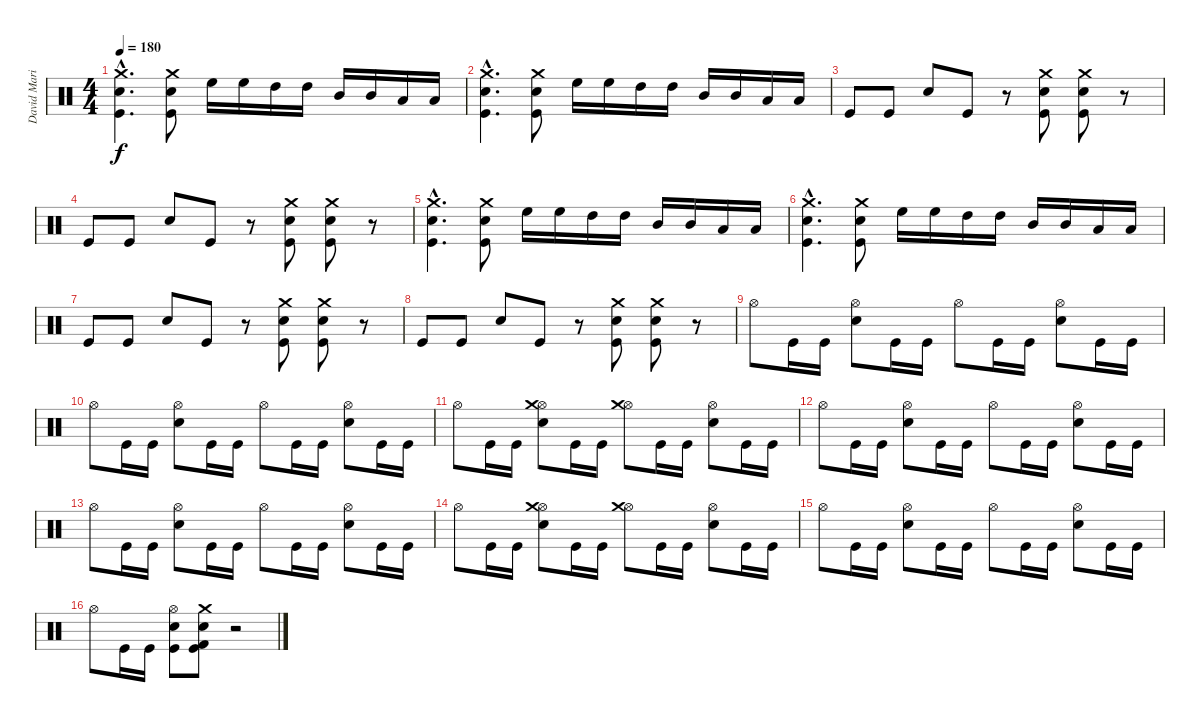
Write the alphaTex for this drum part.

\track ("David Marinero" "David Mari") {instrument percussion}
\staff {score}
\articulation defaults
\ts (4 4)
\tempo 180
\clef neutral
\ks c
("Crash medium (hit)"{hac} "Snare (hit) 2"{hac} "Kick (hit)"{hac}).4{d dy f} ("Crash medium (hit)" "Snare (hit) 2" "Kick (hit)").8 "High Floor Tom (hit)".16 "High Floor Tom (hit)".16 "High Tom (hit)".16 "High Tom (hit)".16 "Mid Tom (hit)".16 "Mid Tom (hit)".16 "Low Tom (hit)".16 "Low Tom (hit)".16 |
("Crash medium (hit)"{hac} "Snare (hit) 2"{hac} "Kick (hit)"{hac}).4{d} ("Crash medium (hit)" "Snare (hit) 2" "Kick (hit)").8 "High Floor Tom (hit)".16 "High Floor Tom (hit)".16 "High Tom (hit)".16 "High Tom (hit)".16 "Mid Tom (hit)".16 "Mid Tom (hit)".16 "Low Tom (hit)".16 "Low Tom (hit)".16 |
"Kick (hit)".8 "Kick (hit)".8 "Snare (hit) 2".8 "Kick (hit)".8 r.8 ("Crash medium (hit)" "Snare (hit) 2" "Kick (hit)").8 ("Crash medium (hit)" "Snare (hit) 2" "Kick (hit)").8 r.8 |
"Kick (hit)".8 "Kick (hit)".8 "Snare (hit) 2".8 "Kick (hit)".8 r.8 ("Crash medium (hit)" "Snare (hit) 2" "Kick (hit)").8 ("Crash medium (hit)" "Snare (hit) 2" "Kick (hit)").8 r.8 |
("Crash medium (hit)"{hac} "Snare (hit) 2"{hac} "Kick (hit)"{hac}).4{d} ("Crash medium (hit)" "Snare (hit) 2" "Kick (hit)").8 "High Floor Tom (hit)".16 "High Floor Tom (hit)".16 "High Tom (hit)".16 "High Tom (hit)".16 "Mid Tom (hit)".16 "Mid Tom (hit)".16 "Low Tom (hit)".16 "Low Tom (hit)".16 |
("Crash medium (hit)"{hac} "Snare (hit) 2"{hac} "Kick (hit)"{hac}).4{d} ("Crash medium (hit)" "Snare (hit) 2" "Kick (hit)").8 "High Floor Tom (hit)".16 "High Floor Tom (hit)".16 "High Tom (hit)".16 "High Tom (hit)".16 "Mid Tom (hit)".16 "Mid Tom (hit)".16 "Low Tom (hit)".16 "Low Tom (hit)".16 |
"Kick (hit)".8 "Kick (hit)".8 "Snare (hit) 2".8 "Kick (hit)".8 r.8 ("Crash medium (hit)" "Snare (hit) 2" "Kick (hit)").8 ("Crash medium (hit)" "Snare (hit) 2" "Kick (hit)").8 r.8 |
"Kick (hit)".8 "Kick (hit)".8 "Snare (hit) 2".8 "Kick (hit)".8 r.8 ("Crash medium (hit)" "Snare (hit) 2" "Kick (hit)").8 ("Crash medium (hit)" "Snare (hit) 2" "Kick (hit)").8 r.8 |
"Hi-Hat (open)".8 "Kick (hit)".16 "Kick (hit)".16 ("Hi-Hat (open)" "Snare (hit) 2").8 "Kick (hit)".16 "Kick (hit)".16 "Hi-Hat (open)".8 "Kick (hit)".16 "Kick (hit)".16 ("Hi-Hat (open)" "Snare (hit) 2").8 "Kick (hit)".16 "Kick (hit)".16 |
"Hi-Hat (open)".8 "Kick (hit)".16 "Kick (hit)".16 ("Hi-Hat (open)" "Snare (hit) 2").8 "Kick (hit)".16 "Kick (hit)".16 "Hi-Hat (open)".8 "Kick (hit)".16 "Kick (hit)".16 ("Hi-Hat (open)" "Snare (hit) 2").8 "Kick (hit)".16 "Kick (hit)".16 |
"Hi-Hat (open)".8 "Kick (hit)".16 "Kick (hit)".16 ("Hi-Hat (open)" "Snare (hit) 2" "Crash medium (hit)").8 "Kick (hit)".16 "Kick (hit)".16 ("Hi-Hat (open)" "Crash medium (hit)").8 "Kick (hit)".16 "Kick (hit)".16 ("Hi-Hat (open)" "Snare (hit) 2").8 "Kick (hit)".16 "Kick (hit)".16 |
"Hi-Hat (open)".8 "Kick (hit)".16 "Kick (hit)".16 ("Hi-Hat (open)" "Snare (hit) 2").8 "Kick (hit)".16 "Kick (hit)".16 "Hi-Hat (open)".8 "Kick (hit)".16 "Kick (hit)".16 ("Hi-Hat (open)" "Snare (hit) 2").8 "Kick (hit)".16 "Kick (hit)".16 |
"Hi-Hat (open)".8 "Kick (hit)".16 "Kick (hit)".16 ("Hi-Hat (open)" "Snare (hit) 2").8 "Kick (hit)".16 "Kick (hit)".16 "Hi-Hat (open)".8 "Kick (hit)".16 "Kick (hit)".16 ("Hi-Hat (open)" "Snare (hit) 2").8 "Kick (hit)".16 "Kick (hit)".16 |
"Hi-Hat (open)".8 "Kick (hit)".16 "Kick (hit)".16 ("Hi-Hat (open)" "Snare (hit) 2" "Crash medium (hit)").8 "Kick (hit)".16 "Kick (hit)".16 ("Hi-Hat (open)" "Crash medium (hit)").8 "Kick (hit)".16 "Kick (hit)".16 ("Hi-Hat (open)" "Snare (hit) 2").8 "Kick (hit)".16 "Kick (hit)".16 |
"Hi-Hat (open)".8 "Kick (hit)".16 "Kick (hit)".16 ("Hi-Hat (open)" "Snare (hit) 2").8 "Kick (hit)".16 "Kick (hit)".16 "Hi-Hat (open)".8 "Kick (hit)".16 "Kick (hit)".16 ("Hi-Hat (open)" "Snare (hit) 2").8 "Kick (hit)".16 "Kick (hit)".16 |
"Hi-Hat (open)".8 "Kick (hit)".16 "Kick (hit)".16 ("Hi-Hat (open)" "Snare (hit) 2" "Kick (hit)").8 ("Kick (hit) 2" "Snare (hit) 2" "Crash medium (hit)" "Kick (hit)").8 r.2
